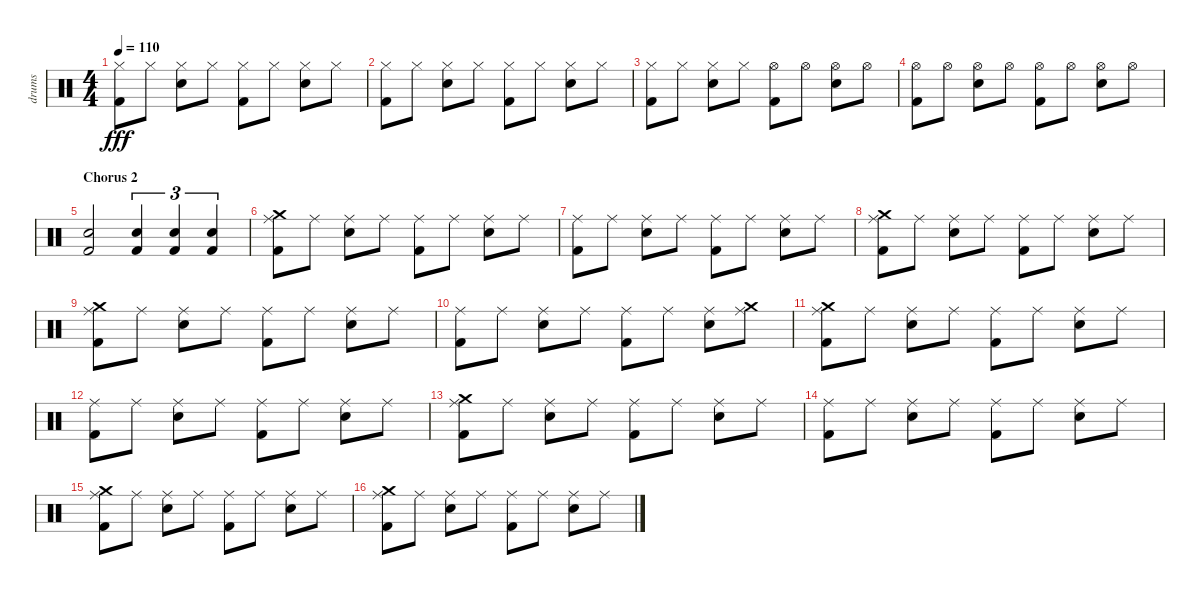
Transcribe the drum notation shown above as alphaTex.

\track ("drums" "drums") {instrument percussion}
\staff {score}
\articulation defaults
\ts (4 4)
\tempo 110
\clef neutral
\ks c
("Kick (hit) 2" "Hi-Hat (closed)").8{dy fff} "Hi-Hat (closed)".8 ("Electric Snare (hit)" "Hi-Hat (closed)").8 "Hi-Hat (closed)".8 ("Kick (hit) 2" "Hi-Hat (closed)").8 "Hi-Hat (closed)".8 ("Electric Snare (hit)" "Hi-Hat (closed)").8 "Hi-Hat (closed)".8 |
("Kick (hit) 2" "Hi-Hat (closed)").8 "Hi-Hat (closed)".8 ("Electric Snare (hit)" "Hi-Hat (closed)").8 "Hi-Hat (closed)".8 ("Kick (hit) 2" "Hi-Hat (closed)").8 "Hi-Hat (closed)".8 ("Electric Snare (hit)" "Hi-Hat (closed)").8 "Hi-Hat (closed)".8 |
("Kick (hit) 2" "Hi-Hat (closed)").8 "Hi-Hat (closed)".8 ("Electric Snare (hit)" "Hi-Hat (closed)").8 "Hi-Hat (closed)".8 ("Kick (hit) 2" "Hi-Hat (open)").8 "Hi-Hat (open)".8 ("Electric Snare (hit)" "Hi-Hat (open)").8 "Hi-Hat (open)".8 |
("Kick (hit) 2" "Hi-Hat (open)").8 "Hi-Hat (open)".8 ("Electric Snare (hit)" "Hi-Hat (open)").8 "Hi-Hat (open)".8 ("Kick (hit) 2" "Hi-Hat (open)").8 "Hi-Hat (open)".8 ("Electric Snare (hit)" "Hi-Hat (open)").8 "Hi-Hat (open)".8 |
\section ("" "Chorus 2")
("Kick (hit) 2" "Electric Snare (hit)").2 ("Electric Snare (hit)" "Kick (hit) 2").4{tu (3 2)} ("Electric Snare (hit)" "Kick (hit) 2").4{tu (3 2)} ("Electric Snare (hit)" "Kick (hit) 2").4{tu (3 2)} |
("Kick (hit) 2" "Ride (middle)" "Crash medium (hit)").8 "Ride (middle)".8 ("Electric Snare (hit)" "Ride (middle)").8 "Ride (middle)".8 ("Kick (hit) 2" "Ride (middle)").8 "Ride (middle)".8 ("Electric Snare (hit)" "Ride (middle)").8 "Ride (middle)".8 |
("Kick (hit) 2" "Ride (middle)").8 "Ride (middle)".8 ("Electric Snare (hit)" "Ride (middle)").8 "Ride (middle)".8 ("Kick (hit) 2" "Ride (middle)").8 "Ride (middle)".8 ("Electric Snare (hit)" "Ride (middle)").8 "Ride (middle)".8 |
("Kick (hit) 2" "Ride (middle)" "Crash medium (hit)").8 "Ride (middle)".8 ("Electric Snare (hit)" "Ride (middle)").8 "Ride (middle)".8 ("Kick (hit) 2" "Ride (middle)").8 "Ride (middle)".8 ("Electric Snare (hit)" "Ride (middle)").8 "Ride (middle)".8 |
("Kick (hit) 2" "Ride (middle)" "Crash medium (hit)").8 "Ride (middle)".8 ("Electric Snare (hit)" "Ride (middle)").8 "Ride (middle)".8 ("Kick (hit) 2" "Ride (middle)").8 "Ride (middle)".8 ("Electric Snare (hit)" "Ride (middle)").8 "Ride (middle)".8 |
("Kick (hit) 2" "Ride (middle)").8 "Ride (middle)".8 ("Electric Snare (hit)" "Ride (middle)").8 "Ride (middle)".8 ("Kick (hit) 2" "Ride (middle)").8 "Ride (middle)".8 ("Electric Snare (hit)" "Ride (middle)").8 ("Ride (middle)" "Crash medium (hit)").8 |
("Kick (hit) 2" "Ride (middle)" "Crash medium (hit)").8 "Ride (middle)".8 ("Electric Snare (hit)" "Ride (middle)").8 "Ride (middle)".8 ("Kick (hit) 2" "Ride (middle)").8 "Ride (middle)".8 ("Electric Snare (hit)" "Ride (middle)").8 "Ride (middle)".8 |
("Kick (hit) 2" "Ride (middle)").8 "Ride (middle)".8 ("Electric Snare (hit)" "Ride (middle)").8 "Ride (middle)".8 ("Kick (hit) 2" "Ride (middle)").8 "Ride (middle)".8 ("Electric Snare (hit)" "Ride (middle)").8 "Ride (middle)".8 |
("Kick (hit) 2" "Ride (middle)" "Crash medium (hit)").8 "Ride (middle)".8 ("Electric Snare (hit)" "Ride (middle)").8 "Ride (middle)".8 ("Kick (hit) 2" "Ride (middle)").8 "Ride (middle)".8 ("Electric Snare (hit)" "Ride (middle)").8 "Ride (middle)".8 |
("Kick (hit) 2" "Ride (middle)").8 "Ride (middle)".8 ("Electric Snare (hit)" "Ride (middle)").8 "Ride (middle)".8 ("Kick (hit) 2" "Ride (middle)").8 "Ride (middle)".8 ("Electric Snare (hit)" "Ride (middle)").8 "Ride (middle)".8 |
("Kick (hit) 2" "Ride (middle)" "Crash medium (hit)").8 "Ride (middle)".8 ("Electric Snare (hit)" "Ride (middle)").8 "Ride (middle)".8 ("Kick (hit) 2" "Ride (middle)").8 "Ride (middle)".8 ("Electric Snare (hit)" "Ride (middle)").8 "Ride (middle)".8 |
("Kick (hit) 2" "Ride (middle)" "Crash medium (hit)").8 "Ride (middle)".8 ("Electric Snare (hit)" "Ride (middle)").8 "Ride (middle)".8 ("Kick (hit) 2" "Ride (middle)").8 "Ride (middle)".8 ("Electric Snare (hit)" "Ride (middle)").8 "Ride (middle)".8
